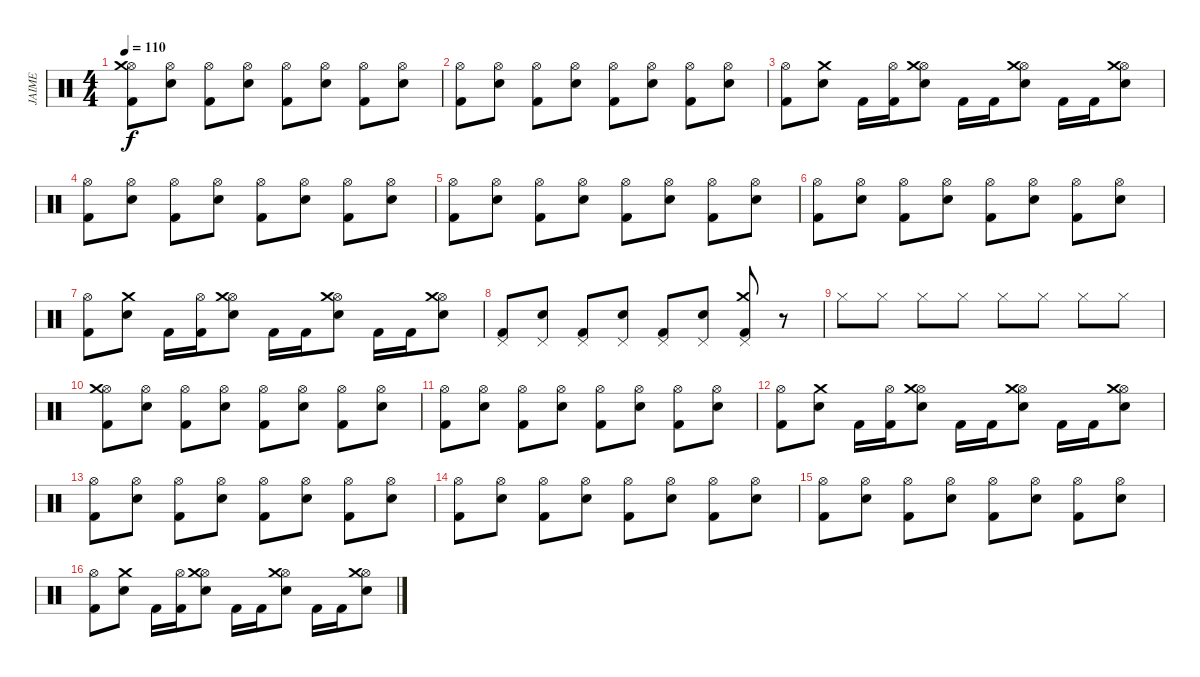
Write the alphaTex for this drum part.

\track ("JAIME" "JAIME") {instrument percussion}
\staff {score}
\articulation defaults
\ts (4 4)
\tempo 110
\clef neutral
\ks c
("Kick (hit) 2" "Hi-Hat (open)" "Crash medium (hit)").8{dy f} ("Electric Snare (hit)" "Hi-Hat (open)").8 ("Kick (hit) 2" "Hi-Hat (open)").8 ("Electric Snare (hit)" "Hi-Hat (open)").8 ("Kick (hit) 2" "Hi-Hat (open)").8 ("Electric Snare (hit)" "Hi-Hat (open)").8 ("Kick (hit) 2" "Hi-Hat (open)").8 ("Electric Snare (hit)" "Hi-Hat (open)").8 |
("Kick (hit) 2" "Hi-Hat (open)").8 ("Electric Snare (hit)" "Hi-Hat (open)").8 ("Kick (hit) 2" "Hi-Hat (open)").8 ("Electric Snare (hit)" "Hi-Hat (open)").8 ("Kick (hit) 2" "Hi-Hat (open)").8 ("Electric Snare (hit)" "Hi-Hat (open)").8 ("Kick (hit) 2" "Hi-Hat (open)").8 ("Electric Snare (hit)" "Hi-Hat (open)").8 |
("Kick (hit) 2" "Hi-Hat (open)").8 ("Electric Snare (hit)" "Crash medium (hit)").8 "Kick (hit) 2".16 ("Kick (hit) 2" "Hi-Hat (open)").16 ("Electric Snare (hit)" "Hi-Hat (open)" "Crash medium (hit)").8 "Kick (hit) 2".16 "Kick (hit) 2".16 ("Electric Snare (hit)" "Hi-Hat (open)" "Crash medium (hit)").8 "Kick (hit) 2".16 "Kick (hit) 2".16 ("Electric Snare (hit)" "Hi-Hat (open)" "Crash medium (hit)").8 |
("Kick (hit) 2" "Hi-Hat (open)").8 ("Electric Snare (hit)" "Hi-Hat (open)").8 ("Kick (hit) 2" "Hi-Hat (open)").8 ("Electric Snare (hit)" "Hi-Hat (open)").8 ("Kick (hit) 2" "Hi-Hat (open)").8 ("Electric Snare (hit)" "Hi-Hat (open)").8 ("Kick (hit) 2" "Hi-Hat (open)").8 ("Electric Snare (hit)" "Hi-Hat (open)").8 |
("Kick (hit) 2" "Hi-Hat (open)").8 ("Electric Snare (hit)" "Hi-Hat (open)").8 ("Kick (hit) 2" "Hi-Hat (open)").8 ("Electric Snare (hit)" "Hi-Hat (open)").8 ("Kick (hit) 2" "Hi-Hat (open)").8 ("Electric Snare (hit)" "Hi-Hat (open)").8 ("Kick (hit) 2" "Hi-Hat (open)").8 ("Electric Snare (hit)" "Hi-Hat (open)").8 |
("Kick (hit) 2" "Hi-Hat (open)").8 ("Electric Snare (hit)" "Hi-Hat (open)").8 ("Kick (hit) 2" "Hi-Hat (open)").8 ("Electric Snare (hit)" "Hi-Hat (open)").8 ("Kick (hit) 2" "Hi-Hat (open)").8 ("Electric Snare (hit)" "Hi-Hat (open)").8 ("Kick (hit) 2" "Hi-Hat (open)").8 ("Electric Snare (hit)" "Hi-Hat (open)").8 |
("Kick (hit) 2" "Hi-Hat (open)").8 ("Electric Snare (hit)" "Crash medium (hit)").8 "Kick (hit) 2".16 ("Kick (hit) 2" "Hi-Hat (open)").16 ("Electric Snare (hit)" "Hi-Hat (open)" "Crash medium (hit)").8 "Kick (hit) 2".16 "Kick (hit) 2".16 ("Electric Snare (hit)" "Hi-Hat (open)" "Crash medium (hit)").8 "Kick (hit) 2".16 "Kick (hit) 2".16 ("Electric Snare (hit)" "Hi-Hat (open)" "Crash medium (hit)").8 |
("Kick (hit) 2" "Pedal Hi-Hat (hit)").8 ("Electric Snare (hit)" "Pedal Hi-Hat (hit)").8 ("Kick (hit) 2" "Pedal Hi-Hat (hit)").8 ("Electric Snare (hit)" "Pedal Hi-Hat (hit)").8 ("Kick (hit) 2" "Pedal Hi-Hat (hit)").8 ("Electric Snare (hit)" "Pedal Hi-Hat (hit)").8 ("Kick (hit) 2" "Crash medium (hit)" "Pedal Hi-Hat (hit)").8 r.8 |
"Hi-Hat (closed)".8 "Hi-Hat (closed)".8 "Hi-Hat (closed)".8 "Hi-Hat (closed)".8 "Hi-Hat (closed)".8 "Hi-Hat (closed)".8 "Hi-Hat (closed)".8 "Hi-Hat (closed)".8 |
("Kick (hit) 2" "Hi-Hat (open)" "Crash medium (hit)").8 ("Electric Snare (hit)" "Hi-Hat (open)").8 ("Kick (hit) 2" "Hi-Hat (open)").8 ("Electric Snare (hit)" "Hi-Hat (open)").8 ("Kick (hit) 2" "Hi-Hat (open)").8 ("Electric Snare (hit)" "Hi-Hat (open)").8 ("Kick (hit) 2" "Hi-Hat (open)").8 ("Electric Snare (hit)" "Hi-Hat (open)").8 |
("Kick (hit) 2" "Hi-Hat (open)").8 ("Electric Snare (hit)" "Hi-Hat (open)").8 ("Kick (hit) 2" "Hi-Hat (open)").8 ("Electric Snare (hit)" "Hi-Hat (open)").8 ("Kick (hit) 2" "Hi-Hat (open)").8 ("Electric Snare (hit)" "Hi-Hat (open)").8 ("Kick (hit) 2" "Hi-Hat (open)").8 ("Electric Snare (hit)" "Hi-Hat (open)").8 |
("Kick (hit) 2" "Hi-Hat (open)").8 ("Electric Snare (hit)" "Crash medium (hit)").8 "Kick (hit) 2".16 ("Kick (hit) 2" "Hi-Hat (open)").16 ("Electric Snare (hit)" "Hi-Hat (open)" "Crash medium (hit)").8 "Kick (hit) 2".16 "Kick (hit) 2".16 ("Electric Snare (hit)" "Hi-Hat (open)" "Crash medium (hit)").8 "Kick (hit) 2".16 "Kick (hit) 2".16 ("Electric Snare (hit)" "Hi-Hat (open)" "Crash medium (hit)").8 |
("Kick (hit) 2" "Hi-Hat (open)").8 ("Electric Snare (hit)" "Hi-Hat (open)").8 ("Kick (hit) 2" "Hi-Hat (open)").8 ("Electric Snare (hit)" "Hi-Hat (open)").8 ("Kick (hit) 2" "Hi-Hat (open)").8 ("Electric Snare (hit)" "Hi-Hat (open)").8 ("Kick (hit) 2" "Hi-Hat (open)").8 ("Electric Snare (hit)" "Hi-Hat (open)").8 |
("Kick (hit) 2" "Hi-Hat (open)").8 ("Electric Snare (hit)" "Hi-Hat (open)").8 ("Kick (hit) 2" "Hi-Hat (open)").8 ("Electric Snare (hit)" "Hi-Hat (open)").8 ("Kick (hit) 2" "Hi-Hat (open)").8 ("Electric Snare (hit)" "Hi-Hat (open)").8 ("Kick (hit) 2" "Hi-Hat (open)").8 ("Electric Snare (hit)" "Hi-Hat (open)").8 |
("Kick (hit) 2" "Hi-Hat (open)").8 ("Electric Snare (hit)" "Hi-Hat (open)").8 ("Kick (hit) 2" "Hi-Hat (open)").8 ("Electric Snare (hit)" "Hi-Hat (open)").8 ("Kick (hit) 2" "Hi-Hat (open)").8 ("Electric Snare (hit)" "Hi-Hat (open)").8 ("Kick (hit) 2" "Hi-Hat (open)").8 ("Electric Snare (hit)" "Hi-Hat (open)").8 |
("Kick (hit) 2" "Hi-Hat (open)").8 ("Electric Snare (hit)" "Crash medium (hit)").8 "Kick (hit) 2".16 ("Kick (hit) 2" "Hi-Hat (open)").16 ("Electric Snare (hit)" "Hi-Hat (open)" "Crash medium (hit)").8 "Kick (hit) 2".16 "Kick (hit) 2".16 ("Electric Snare (hit)" "Hi-Hat (open)" "Crash medium (hit)").8 "Kick (hit) 2".16 "Kick (hit) 2".16 ("Electric Snare (hit)" "Hi-Hat (open)" "Crash medium (hit)").8
